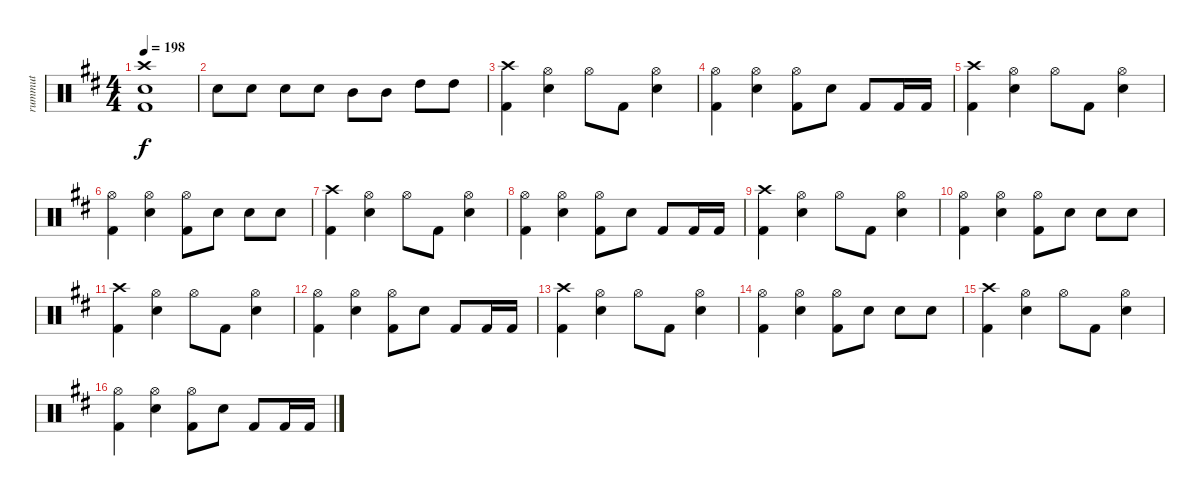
\track ("rummut" "rummut") {instrument percussion}
\staff {score}
\articulation defaults
\ts (4 4)
\tempo 198
\clef neutral
\ks d
("Crash high (hit)" "Kick (hit) 2" "Electric Snare (hit)").1{dy f} |
"Electric Snare (hit)".8 "Electric Snare (hit)".8 "Electric Snare (hit)".8 "Electric Snare (hit)".8 "Mid Tom (hit)".8 "Mid Tom (hit)".8 "High Tom (hit)".8 "High Tom (hit)".8 |
("Crash high (hit)" "Kick (hit) 2").4 ("Hi-Hat (open)" "Electric Snare (hit)").4 "Hi-Hat (open)".8 "Kick (hit) 2".8 ("Hi-Hat (open)" "Electric Snare (hit)").4 |
("Hi-Hat (open)" "Kick (hit) 2").4 ("Hi-Hat (open)" "Electric Snare (hit)").4 ("Hi-Hat (open)" "Kick (hit) 2").8 "Electric Snare (hit)".8 "Kick (hit) 2".8 "Kick (hit) 2".16 "Kick (hit) 2".16 |
("Crash high (hit)" "Kick (hit) 2").4 ("Hi-Hat (open)" "Electric Snare (hit)").4 "Hi-Hat (open)".8 "Kick (hit) 2".8 ("Hi-Hat (open)" "Electric Snare (hit)").4 |
("Hi-Hat (open)" "Kick (hit) 2").4 ("Hi-Hat (open)" "Electric Snare (hit)").4 ("Hi-Hat (open)" "Kick (hit) 2").8 "Electric Snare (hit)".8 "Electric Snare (hit)".8 "Electric Snare (hit)".8 |
("Crash high (hit)" "Kick (hit) 2").4 ("Hi-Hat (open)" "Electric Snare (hit)").4 "Hi-Hat (open)".8 "Kick (hit) 2".8 ("Hi-Hat (open)" "Electric Snare (hit)").4 |
("Hi-Hat (open)" "Kick (hit) 2").4 ("Hi-Hat (open)" "Electric Snare (hit)").4 ("Hi-Hat (open)" "Kick (hit) 2").8 "Electric Snare (hit)".8 "Kick (hit) 2".8 "Kick (hit) 2".16 "Kick (hit) 2".16 |
("Crash high (hit)" "Kick (hit) 2").4 ("Hi-Hat (open)" "Electric Snare (hit)").4 "Hi-Hat (open)".8 "Kick (hit) 2".8 ("Hi-Hat (open)" "Electric Snare (hit)").4 |
("Hi-Hat (open)" "Kick (hit) 2").4 ("Hi-Hat (open)" "Electric Snare (hit)").4 ("Hi-Hat (open)" "Kick (hit) 2").8 "Electric Snare (hit)".8 "Electric Snare (hit)".8 "Electric Snare (hit)".8 |
("Crash high (hit)" "Kick (hit) 2").4 ("Hi-Hat (open)" "Electric Snare (hit)").4 "Hi-Hat (open)".8 "Kick (hit) 2".8 ("Hi-Hat (open)" "Electric Snare (hit)").4 |
("Hi-Hat (open)" "Kick (hit) 2").4 ("Hi-Hat (open)" "Electric Snare (hit)").4 ("Hi-Hat (open)" "Kick (hit) 2").8 "Electric Snare (hit)".8 "Kick (hit) 2".8 "Kick (hit) 2".16 "Kick (hit) 2".16 |
("Crash high (hit)" "Kick (hit) 2").4 ("Hi-Hat (open)" "Electric Snare (hit)").4 "Hi-Hat (open)".8 "Kick (hit) 2".8 ("Hi-Hat (open)" "Electric Snare (hit)").4 |
("Hi-Hat (open)" "Kick (hit) 2").4 ("Hi-Hat (open)" "Electric Snare (hit)").4 ("Hi-Hat (open)" "Kick (hit) 2").8 "Electric Snare (hit)".8 "Electric Snare (hit)".8 "Electric Snare (hit)".8 |
("Crash high (hit)" "Kick (hit) 2").4 ("Hi-Hat (open)" "Electric Snare (hit)").4 "Hi-Hat (open)".8 "Kick (hit) 2".8 ("Hi-Hat (open)" "Electric Snare (hit)").4 |
("Hi-Hat (open)" "Kick (hit) 2").4 ("Hi-Hat (open)" "Electric Snare (hit)").4 ("Hi-Hat (open)" "Kick (hit) 2").8 "Electric Snare (hit)".8 "Kick (hit) 2".8 "Kick (hit) 2".16 "Kick (hit) 2".16
